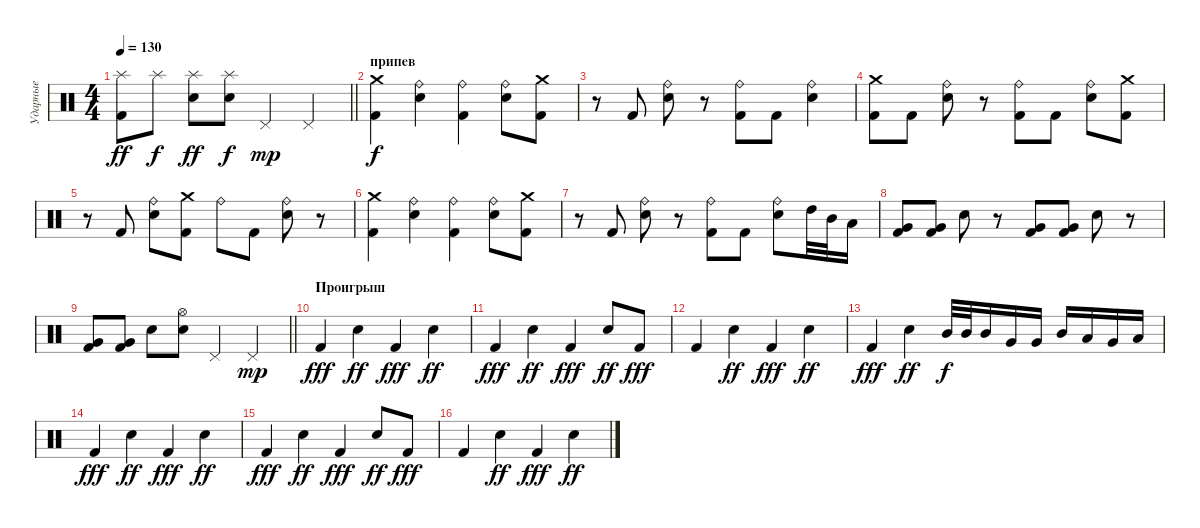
\track ("Ударные" "Ударные") {instrument percussion}
\staff {score}
\articulation defaults
\ts (4 4)
\tempo 130
\clef neutral
\barLineRight lightlight
\ks c
("Kick (hit) 2" "Splash (hit)").8{dy ff} "Splash (hit)".8{dy f} ("Electric Snare (hit)" "Splash (hit)").8{dy ff} ("Electric Snare (hit)" "Splash (hit)").8{dy f} "Pedal Hi-Hat (hit)".4{dy mp} "Pedal Hi-Hat (hit)".4 |
\section ("" "припев")
("Kick (hit) 2" "Crash medium (hit)").4{dy f} ("Electric Snare (hit)" "Ride (bell)").4 ("Kick (hit) 2" "Ride (bell)").4 ("Electric Snare (hit)" "Ride (bell)").8 ("Kick (hit) 2" "Crash medium (hit)").8 |
r.8 "Kick (hit) 2".8 ("Electric Snare (hit)" "Ride (bell)").8 r.8 ("Kick (hit) 2" "Ride (bell)").8 "Kick (hit) 2".8 ("Electric Snare (hit)" "Ride (bell)").4 |
("Kick (hit) 2" "Crash medium (hit)").8 "Kick (hit) 2".8 ("Electric Snare (hit)" "Ride (bell)").8 r.8 ("Kick (hit) 2" "Ride (bell)").8 "Kick (hit) 2".8 ("Electric Snare (hit)" "Ride (bell)").8 ("Kick (hit) 2" "Crash medium (hit)").8 |
r.8 "Kick (hit) 2".8 ("Electric Snare (hit)" "Ride (bell)").8 ("Kick (hit) 2" "Crash medium (hit)").8 "Ride (bell)".8 "Kick (hit) 2".8 ("Electric Snare (hit)" "Ride (bell)").8 r.8 |
("Kick (hit) 2" "Crash medium (hit)").4 ("Electric Snare (hit)" "Ride (bell)").4 ("Kick (hit) 2" "Ride (bell)").4 ("Electric Snare (hit)" "Ride (bell)").8 ("Kick (hit) 2" "Crash medium (hit)").8 |
r.8 "Kick (hit) 2".8 ("Electric Snare (hit)" "Ride (bell)").8 r.8 ("Kick (hit) 2" "Ride (bell)").8 "Kick (hit) 2".8 ("Electric Snare (hit)" "Ride (bell)").8 "High Tom (hit)".32 "Mid Tom (hit)".32 "Low Tom (hit)".16 |
("Kick (hit) 2" "Very Low Tom (hit)").8 ("Kick (hit) 2" "Very Low Tom (hit)").8 "Electric Snare (hit)".8 r.8 ("Kick (hit) 2" "Very Low Tom (hit)").8 ("Kick (hit) 2" "Very Low Tom (hit)").8 "Electric Snare (hit)".8 r.8 |
\barLineRight lightlight
("Kick (hit) 2" "Very Low Tom (hit)").8 ("Kick (hit) 2" "Very Low Tom (hit)").8 "Electric Snare (hit)".8 ("Hi-Hat (open)" "Electric Snare (hit)").8 "Pedal Hi-Hat (hit)".4 "Pedal Hi-Hat (hit)".4{dy mp} |
\section ("" "Проигрыш")
"Kick (hit) 2".4{dy fff} "Electric Snare (hit)".4{dy ff} "Kick (hit) 2".4{dy fff} "Electric Snare (hit)".4{dy ff} |
"Kick (hit) 2".4{dy fff} "Electric Snare (hit)".4{dy ff} "Kick (hit) 2".4{dy fff} "Electric Snare (hit)".8{dy ff} "Kick (hit) 2".8{dy fff} |
"Kick (hit) 2".4 "Electric Snare (hit)".4{dy ff} "Kick (hit) 2".4{dy fff} "Electric Snare (hit)".4{dy ff} |
"Kick (hit) 2".4{dy fff} "Electric Snare (hit)".4{dy ff} "Mid Tom (hit)".32{dy f} "Mid Tom (hit)".32 "Mid Tom (hit)".16 "Very Low Tom (hit)".16 "Very Low Tom (hit)".16 "Mid Tom (hit)".16 "Low Tom (hit)".16 "Very Low Tom (hit)".16 "Low Floor Tom (hit)".16 |
"Kick (hit) 2".4{dy fff} "Electric Snare (hit)".4{dy ff} "Kick (hit) 2".4{dy fff} "Electric Snare (hit)".4{dy ff} |
"Kick (hit) 2".4{dy fff} "Electric Snare (hit)".4{dy ff} "Kick (hit) 2".4{dy fff} "Electric Snare (hit)".8{dy ff} "Kick (hit) 2".8{dy fff} |
"Kick (hit) 2".4 "Electric Snare (hit)".4{dy ff} "Kick (hit) 2".4{dy fff} "Electric Snare (hit)".4{dy ff}
